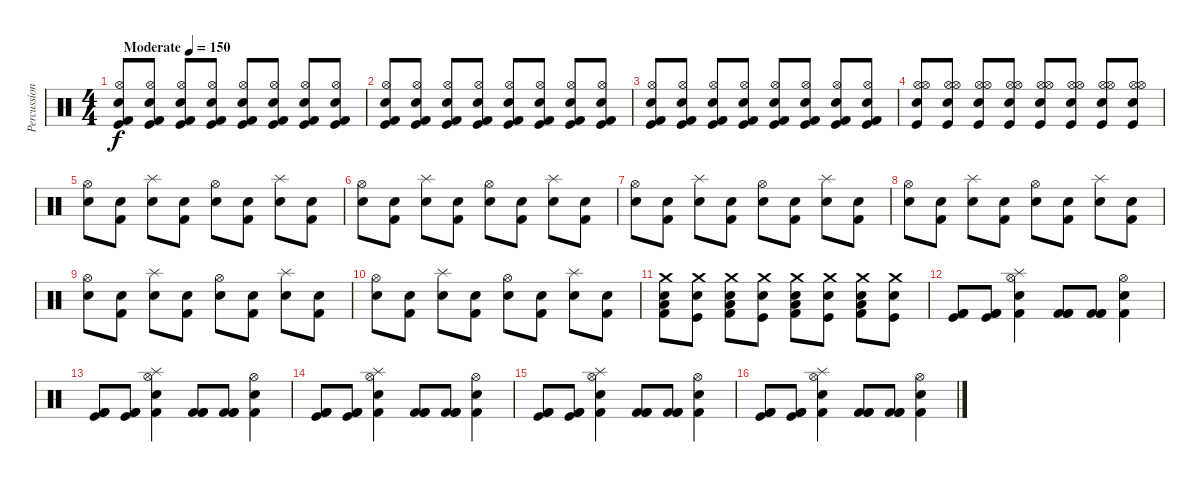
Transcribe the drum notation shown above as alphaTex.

\track ("Percussion" "Percussion") {instrument percussion}
\staff {score}
\articulation defaults
\ts (4 4)
\tempo (150 "Moderate")
\clef neutral
\ks c
("Snare (hit) 2" "Kick (hit) 2" "Hi-Hat (open)" "Kick (hit)").8{dy f} ("Snare (hit) 2" "Kick (hit) 2" "Hi-Hat (open)" "Kick (hit)").8 ("Snare (hit) 2" "Kick (hit) 2" "Hi-Hat (open)" "Kick (hit)").8 ("Snare (hit) 2" "Kick (hit) 2" "Hi-Hat (open)" "Kick (hit)").8 ("Snare (hit) 2" "Kick (hit) 2" "Hi-Hat (open)" "Kick (hit)").8 ("Snare (hit) 2" "Kick (hit) 2" "Hi-Hat (open)" "Kick (hit)").8 ("Snare (hit) 2" "Kick (hit) 2" "Hi-Hat (open)" "Kick (hit)").8 ("Snare (hit) 2" "Kick (hit) 2" "Hi-Hat (open)" "Kick (hit)").8 |
("Snare (hit) 2" "Kick (hit) 2" "Hi-Hat (open)" "Kick (hit)").8 ("Snare (hit) 2" "Kick (hit) 2" "Hi-Hat (open)" "Kick (hit)").8 ("Snare (hit) 2" "Kick (hit) 2" "Hi-Hat (open)" "Kick (hit)").8 ("Snare (hit) 2" "Kick (hit) 2" "Hi-Hat (open)" "Kick (hit)").8 ("Snare (hit) 2" "Kick (hit) 2" "Hi-Hat (open)" "Kick (hit)").8 ("Snare (hit) 2" "Kick (hit) 2" "Hi-Hat (open)" "Kick (hit)").8 ("Snare (hit) 2" "Kick (hit) 2" "Hi-Hat (open)" "Kick (hit)").8 ("Snare (hit) 2" "Kick (hit) 2" "Hi-Hat (open)" "Kick (hit)").8 |
("Snare (hit) 2" "Kick (hit) 2" "Hi-Hat (open)" "Kick (hit)").8 ("Snare (hit) 2" "Kick (hit) 2" "Hi-Hat (open)" "Kick (hit)").8 ("Snare (hit) 2" "Kick (hit) 2" "Hi-Hat (open)" "Kick (hit)").8 ("Snare (hit) 2" "Kick (hit) 2" "Hi-Hat (open)" "Kick (hit)").8 ("Snare (hit) 2" "Kick (hit) 2" "Hi-Hat (open)" "Kick (hit)").8 ("Snare (hit) 2" "Kick (hit) 2" "Hi-Hat (open)" "Kick (hit)").8 ("Snare (hit) 2" "Kick (hit) 2" "Hi-Hat (open)" "Kick (hit)").8 ("Snare (hit) 2" "Kick (hit) 2" "Hi-Hat (open)" "Kick (hit)").8 |
("Snare (hit) 2" "Hi-Hat (open)" "Hi-Hat (open)" "Kick (hit)").8 ("Snare (hit) 2" "Hi-Hat (open)" "Hi-Hat (open)" "Kick (hit)").8 ("Snare (hit) 2" "Hi-Hat (open)" "Hi-Hat (open)" "Kick (hit)").8 ("Snare (hit) 2" "Hi-Hat (open)" "Hi-Hat (open)" "Kick (hit)").8 ("Snare (hit) 2" "Hi-Hat (open)" "Hi-Hat (open)" "Kick (hit)").8 ("Snare (hit) 2" "Hi-Hat (open)" "Hi-Hat (open)" "Kick (hit)").8 ("Snare (hit) 2" "Hi-Hat (open)" "Hi-Hat (open)" "Kick (hit)").8 ("Snare (hit) 2" "Hi-Hat (open)" "Hi-Hat (open)" "Kick (hit)").8 |
("Snare (hit) 2" "Hi-Hat (open)").8 ("Snare (hit) 2" "Kick (hit) 2").8 ("Snare (hit) 2" "Splash (hit)").8 ("Snare (hit) 2" "Kick (hit) 2").8 ("Snare (hit) 2" "Hi-Hat (open)").8 ("Snare (hit) 2" "Kick (hit) 2").8 ("Snare (hit) 2" "Splash (hit)").8 ("Snare (hit) 2" "Kick (hit) 2").8 |
("Snare (hit) 2" "Hi-Hat (open)").8 ("Snare (hit) 2" "Kick (hit) 2").8 ("Snare (hit) 2" "Splash (hit)").8 ("Snare (hit) 2" "Kick (hit) 2").8 ("Snare (hit) 2" "Hi-Hat (open)").8 ("Snare (hit) 2" "Kick (hit) 2").8 ("Snare (hit) 2" "Splash (hit)").8 ("Snare (hit) 2" "Kick (hit) 2").8 |
("Snare (hit) 2" "Hi-Hat (open)").8 ("Snare (hit) 2" "Kick (hit) 2").8 ("Snare (hit) 2" "Splash (hit)").8 ("Snare (hit) 2" "Kick (hit) 2").8 ("Snare (hit) 2" "Hi-Hat (open)").8 ("Snare (hit) 2" "Kick (hit) 2").8 ("Snare (hit) 2" "Splash (hit)").8 ("Snare (hit) 2" "Kick (hit) 2").8 |
("Snare (hit) 2" "Hi-Hat (open)").8 ("Snare (hit) 2" "Kick (hit) 2").8 ("Snare (hit) 2" "Splash (hit)").8 ("Snare (hit) 2" "Kick (hit) 2").8 ("Snare (hit) 2" "Hi-Hat (open)").8 ("Snare (hit) 2" "Kick (hit) 2").8 ("Snare (hit) 2" "Splash (hit)").8 ("Snare (hit) 2" "Kick (hit) 2").8 |
("Snare (hit) 2" "Hi-Hat (open)").8 ("Snare (hit) 2" "Kick (hit) 2").8 ("Snare (hit) 2" "Splash (hit)").8 ("Snare (hit) 2" "Kick (hit) 2").8 ("Snare (hit) 2" "Hi-Hat (open)").8 ("Snare (hit) 2" "Kick (hit) 2").8 ("Snare (hit) 2" "Splash (hit)").8 ("Snare (hit) 2" "Kick (hit) 2").8 |
("Snare (hit) 2" "Hi-Hat (open)").8 ("Snare (hit) 2" "Kick (hit) 2").8 ("Snare (hit) 2" "Splash (hit)").8 ("Snare (hit) 2" "Kick (hit) 2").8 ("Snare (hit) 2" "Hi-Hat (open)").8 ("Snare (hit) 2" "Kick (hit) 2").8 ("Snare (hit) 2" "Splash (hit)").8 ("Snare (hit) 2" "Kick (hit) 2").8 |
("Snare (hit) 2" "Low Tom (hit)" "Crash medium (hit)" "Kick (hit) 2").8 ("Snare (hit) 2" "Crash medium (hit)" "Kick (hit)").8 ("Snare (hit) 2" "Low Tom (hit)" "Crash medium (hit)" "Kick (hit) 2").8 ("Snare (hit) 2" "Crash medium (hit)" "Kick (hit)").8 ("Snare (hit) 2" "Low Tom (hit)" "Crash medium (hit)" "Kick (hit) 2").8 ("Snare (hit) 2" "Crash medium (hit)" "Kick (hit)").8 ("Snare (hit) 2" "Low Tom (hit)" "Crash medium (hit)" "Kick (hit) 2").8 ("Snare (hit) 2" "Crash medium (hit)" "Kick (hit)").8 |
("Kick (hit) 2" "Kick (hit)" "Kick (hit) 2").8 ("Kick (hit) 2" "Kick (hit)" "Kick (hit) 2").8 ("Hi-Hat (open)" "Snare (hit) 2" "Kick (hit) 2" "Splash (hit)").4 ("Kick (hit) 2" "Kick (hit) 2" "Kick (hit) 2").8 ("Kick (hit) 2" "Kick (hit) 2" "Kick (hit) 2").8 ("Hi-Hat (open)" "Snare (hit) 2" "Kick (hit) 2").4 |
("Kick (hit) 2" "Kick (hit)" "Kick (hit) 2").8 ("Kick (hit) 2" "Kick (hit)" "Kick (hit) 2").8 ("Hi-Hat (open)" "Snare (hit) 2" "Kick (hit) 2" "Splash (hit)").4 ("Kick (hit) 2" "Kick (hit) 2" "Kick (hit) 2").8 ("Kick (hit) 2" "Kick (hit) 2" "Kick (hit) 2").8 ("Hi-Hat (open)" "Snare (hit) 2" "Kick (hit) 2").4 |
("Kick (hit) 2" "Kick (hit)" "Kick (hit) 2").8 ("Kick (hit) 2" "Kick (hit)" "Kick (hit) 2").8 ("Hi-Hat (open)" "Snare (hit) 2" "Kick (hit) 2" "Splash (hit)").4 ("Kick (hit) 2" "Kick (hit) 2" "Kick (hit) 2").8 ("Kick (hit) 2" "Kick (hit) 2" "Kick (hit) 2").8 ("Hi-Hat (open)" "Snare (hit) 2" "Kick (hit) 2").4 |
("Kick (hit) 2" "Kick (hit)" "Kick (hit) 2").8 ("Kick (hit) 2" "Kick (hit)" "Kick (hit) 2").8 ("Hi-Hat (open)" "Snare (hit) 2" "Kick (hit) 2" "Splash (hit)").4 ("Kick (hit) 2" "Kick (hit) 2" "Kick (hit) 2").8 ("Kick (hit) 2" "Kick (hit) 2" "Kick (hit) 2").8 ("Hi-Hat (open)" "Snare (hit) 2" "Kick (hit) 2").4 |
("Kick (hit) 2" "Kick (hit)" "Kick (hit) 2").8 ("Kick (hit) 2" "Kick (hit)" "Kick (hit) 2").8 ("Hi-Hat (open)" "Snare (hit) 2" "Kick (hit) 2" "Splash (hit)").4 ("Kick (hit) 2" "Kick (hit) 2" "Kick (hit) 2").8 ("Kick (hit) 2" "Kick (hit) 2" "Kick (hit) 2").8 ("Hi-Hat (open)" "Snare (hit) 2" "Kick (hit) 2").4
